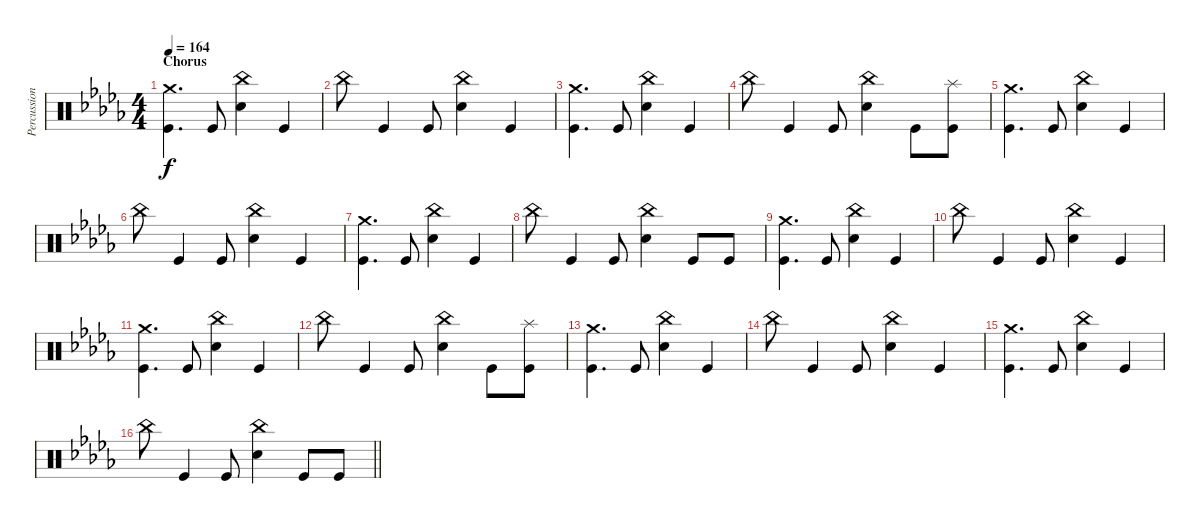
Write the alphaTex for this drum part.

\track ("Percussion" "Percussion") {instrument percussion}
\staff {score}
\articulation defaults
\ts (4 4)
\section ("" "Chorus")
\tempo 164
\clef neutral
\ks db
("Crash medium (hit)" "Kick (hit)").4{d dy f} "Kick (hit)".8 ("China (hit)" "Electric Snare (hit)").4 "Kick (hit)".4 |
"China (hit)".8 "Kick (hit)".4 "Kick (hit)".8 ("China (hit)" "Electric Snare (hit)").4 "Kick (hit)".4 |
("Crash medium (hit)" "Kick (hit)").4{d} "Kick (hit)".8 ("China (hit)" "Electric Snare (hit)").4 "Kick (hit)".4 |
"China (hit)".8 "Kick (hit)".4 "Kick (hit)".8 ("China (hit)" "Electric Snare (hit)").4 "Kick (hit)".8 ("Splash (hit)" "Kick (hit)").8 |
("Crash medium (hit)" "Kick (hit)").4{d} "Kick (hit)".8 ("China (hit)" "Electric Snare (hit)").4 "Kick (hit)".4 |
"China (hit)".8 "Kick (hit)".4 "Kick (hit)".8 ("China (hit)" "Electric Snare (hit)").4 "Kick (hit)".4 |
("Crash medium (hit)" "Kick (hit)").4{d} "Kick (hit)".8 ("China (hit)" "Electric Snare (hit)").4 "Kick (hit)".4 |
"China (hit)".8 "Kick (hit)".4 "Kick (hit)".8 ("China (hit)" "Electric Snare (hit)").4 "Kick (hit)".8 "Kick (hit)".8 |
("Crash medium (hit)" "Kick (hit)").4{d} "Kick (hit)".8 ("China (hit)" "Electric Snare (hit)").4 "Kick (hit)".4 |
"China (hit)".8 "Kick (hit)".4 "Kick (hit)".8 ("China (hit)" "Electric Snare (hit)").4 "Kick (hit)".4 |
("Crash medium (hit)" "Kick (hit)").4{d} "Kick (hit)".8 ("China (hit)" "Electric Snare (hit)").4 "Kick (hit)".4 |
"China (hit)".8 "Kick (hit)".4 "Kick (hit)".8 ("China (hit)" "Electric Snare (hit)").4 "Kick (hit)".8 ("Splash (hit)" "Kick (hit)").8 |
("Crash medium (hit)" "Kick (hit)").4{d} "Kick (hit)".8 ("China (hit)" "Electric Snare (hit)").4 "Kick (hit)".4 |
"China (hit)".8 "Kick (hit)".4 "Kick (hit)".8 ("China (hit)" "Electric Snare (hit)").4 "Kick (hit)".4 |
("Crash medium (hit)" "Kick (hit)").4{d} "Kick (hit)".8 ("China (hit)" "Electric Snare (hit)").4 "Kick (hit)".4 |
\barLineRight lightlight "China (hit)".8 "Kick (hit)".4 "Kick (hit)".8
("China (hit)" "Electric Snare (hit)").4 "Kick (hit)".8 "Kick (hit)".8
